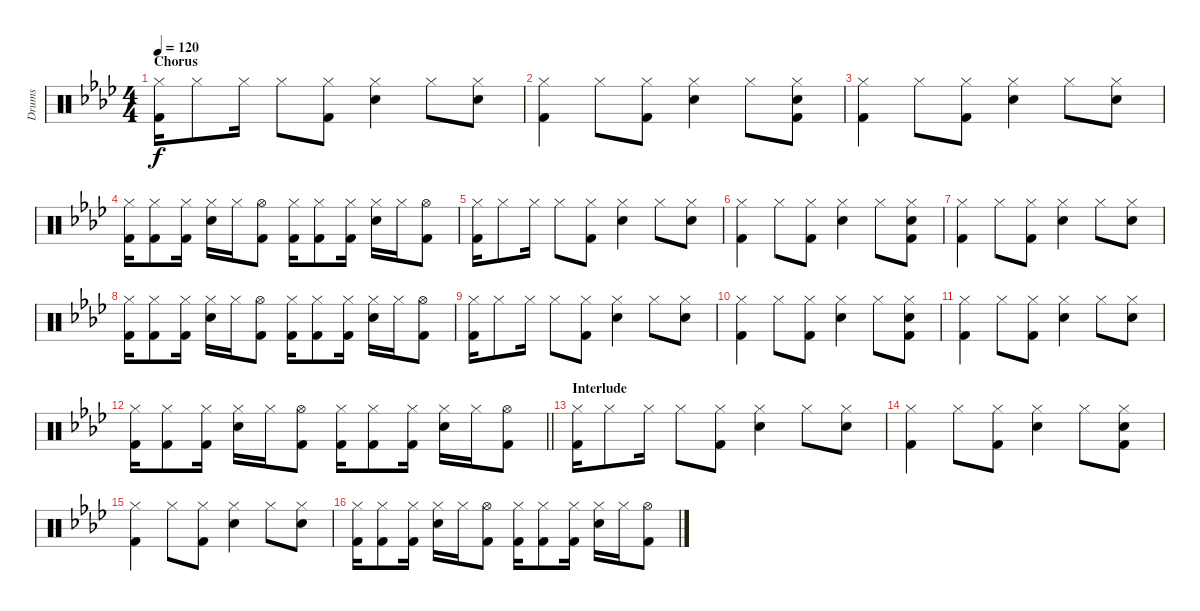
\track ("Drums" "Drums") {instrument percussion}
\staff {score}
\articulation defaults
\ts (4 4)
\section ("" "Chorus")
\tempo 120
\clef neutral
\ks fminor
("Hi-Hat (closed)" "Kick (hit) 2").16{dy f} "Hi-Hat (closed)".8 "Hi-Hat (closed)".16 "Hi-Hat (closed)".8 ("Hi-Hat (closed)" "Kick (hit) 2").8 ("Hi-Hat (closed)" "Snare (hit) 2").4 "Hi-Hat (closed)".8 ("Hi-Hat (closed)" "Snare (hit) 2").8 |
("Hi-Hat (closed)" "Kick (hit) 2").4 "Hi-Hat (closed)".8 ("Hi-Hat (closed)" "Kick (hit) 2").8 ("Hi-Hat (closed)" "Snare (hit) 2").4 "Hi-Hat (closed)".8 ("Hi-Hat (closed)" "Snare (hit) 2" "Kick (hit) 2").8 |
("Hi-Hat (closed)" "Kick (hit) 2").4 "Hi-Hat (closed)".8 ("Hi-Hat (closed)" "Kick (hit) 2").8 ("Hi-Hat (closed)" "Snare (hit) 2").4 "Hi-Hat (closed)".8 ("Hi-Hat (closed)" "Snare (hit) 2").8 |
("Hi-Hat (closed)" "Kick (hit) 2").16 ("Hi-Hat (closed)" "Kick (hit) 2").8 ("Hi-Hat (closed)" "Kick (hit) 2").16 ("Hi-Hat (closed)" "Snare (hit) 2").16 "Hi-Hat (closed)".16 ("Hi-Hat (open)" "Kick (hit) 2").8 ("Hi-Hat (closed)" "Kick (hit) 2").16 ("Hi-Hat (closed)" "Kick (hit) 2").8 ("Hi-Hat (closed)" "Kick (hit) 2").16 ("Hi-Hat (closed)" "Snare (hit) 2").16 "Hi-Hat (closed)".16 ("Hi-Hat (open)" "Kick (hit) 2").8 |
("Hi-Hat (closed)" "Kick (hit) 2").16 "Hi-Hat (closed)".8 "Hi-Hat (closed)".16 "Hi-Hat (closed)".8 ("Hi-Hat (closed)" "Kick (hit) 2").8 ("Hi-Hat (closed)" "Snare (hit) 2").4 "Hi-Hat (closed)".8 ("Hi-Hat (closed)" "Snare (hit) 2").8 |
("Hi-Hat (closed)" "Kick (hit) 2").4 "Hi-Hat (closed)".8 ("Hi-Hat (closed)" "Kick (hit) 2").8 ("Hi-Hat (closed)" "Snare (hit) 2").4 "Hi-Hat (closed)".8 ("Hi-Hat (closed)" "Snare (hit) 2" "Kick (hit) 2").8 |
("Hi-Hat (closed)" "Kick (hit) 2").4 "Hi-Hat (closed)".8 ("Hi-Hat (closed)" "Kick (hit) 2").8 ("Hi-Hat (closed)" "Snare (hit) 2").4 "Hi-Hat (closed)".8 ("Hi-Hat (closed)" "Snare (hit) 2").8 |
("Hi-Hat (closed)" "Kick (hit) 2").16 ("Hi-Hat (closed)" "Kick (hit) 2").8 ("Hi-Hat (closed)" "Kick (hit) 2").16 ("Hi-Hat (closed)" "Snare (hit) 2").16 "Hi-Hat (closed)".16 ("Hi-Hat (open)" "Kick (hit) 2").8 ("Hi-Hat (closed)" "Kick (hit) 2").16 ("Hi-Hat (closed)" "Kick (hit) 2").8 ("Hi-Hat (closed)" "Kick (hit) 2").16 ("Hi-Hat (closed)" "Snare (hit) 2").16 "Hi-Hat (closed)".16 ("Hi-Hat (open)" "Kick (hit) 2").8 |
("Hi-Hat (closed)" "Kick (hit) 2").16 "Hi-Hat (closed)".8 "Hi-Hat (closed)".16 "Hi-Hat (closed)".8 ("Hi-Hat (closed)" "Kick (hit) 2").8 ("Hi-Hat (closed)" "Snare (hit) 2").4 "Hi-Hat (closed)".8 ("Hi-Hat (closed)" "Snare (hit) 2").8 |
("Hi-Hat (closed)" "Kick (hit) 2").4 "Hi-Hat (closed)".8 ("Hi-Hat (closed)" "Kick (hit) 2").8 ("Hi-Hat (closed)" "Snare (hit) 2").4 "Hi-Hat (closed)".8 ("Hi-Hat (closed)" "Snare (hit) 2" "Kick (hit) 2").8 |
("Hi-Hat (closed)" "Kick (hit) 2").4 "Hi-Hat (closed)".8 ("Hi-Hat (closed)" "Kick (hit) 2").8 ("Hi-Hat (closed)" "Snare (hit) 2").4 "Hi-Hat (closed)".8 ("Hi-Hat (closed)" "Snare (hit) 2").8 |
\barLineRight lightlight
("Hi-Hat (closed)" "Kick (hit) 2").16 ("Hi-Hat (closed)" "Kick (hit) 2").8 ("Hi-Hat (closed)" "Kick (hit) 2").16 ("Hi-Hat (closed)" "Snare (hit) 2").16 "Hi-Hat (closed)".16 ("Hi-Hat (open)" "Kick (hit) 2").8 ("Hi-Hat (closed)" "Kick (hit) 2").16 ("Hi-Hat (closed)" "Kick (hit) 2").8 ("Hi-Hat (closed)" "Kick (hit) 2").16 ("Hi-Hat (closed)" "Snare (hit) 2").16 "Hi-Hat (closed)".16 ("Hi-Hat (open)" "Kick (hit) 2").8 |
\section ("" "Interlude")
("Hi-Hat (closed)" "Kick (hit) 2").16 "Hi-Hat (closed)".8 "Hi-Hat (closed)".16 "Hi-Hat (closed)".8 ("Hi-Hat (closed)" "Kick (hit) 2").8 ("Hi-Hat (closed)" "Snare (hit) 2").4 "Hi-Hat (closed)".8 ("Hi-Hat (closed)" "Snare (hit) 2").8 |
("Hi-Hat (closed)" "Kick (hit) 2").4 "Hi-Hat (closed)".8 ("Hi-Hat (closed)" "Kick (hit) 2").8 ("Hi-Hat (closed)" "Snare (hit) 2").4 "Hi-Hat (closed)".8 ("Hi-Hat (closed)" "Snare (hit) 2" "Kick (hit) 2").8 |
("Hi-Hat (closed)" "Kick (hit) 2").4 "Hi-Hat (closed)".8 ("Hi-Hat (closed)" "Kick (hit) 2").8 ("Hi-Hat (closed)" "Snare (hit) 2").4 "Hi-Hat (closed)".8 ("Hi-Hat (closed)" "Snare (hit) 2").8 |
("Hi-Hat (closed)" "Kick (hit) 2").16 ("Hi-Hat (closed)" "Kick (hit) 2").8 ("Hi-Hat (closed)" "Kick (hit) 2").16 ("Hi-Hat (closed)" "Snare (hit) 2").16 "Hi-Hat (closed)".16 ("Hi-Hat (open)" "Kick (hit) 2").8 ("Hi-Hat (closed)" "Kick (hit) 2").16 ("Hi-Hat (closed)" "Kick (hit) 2").8 ("Hi-Hat (closed)" "Kick (hit) 2").16 ("Hi-Hat (closed)" "Snare (hit) 2").16 "Hi-Hat (closed)".16 ("Hi-Hat (open)" "Kick (hit) 2").8
